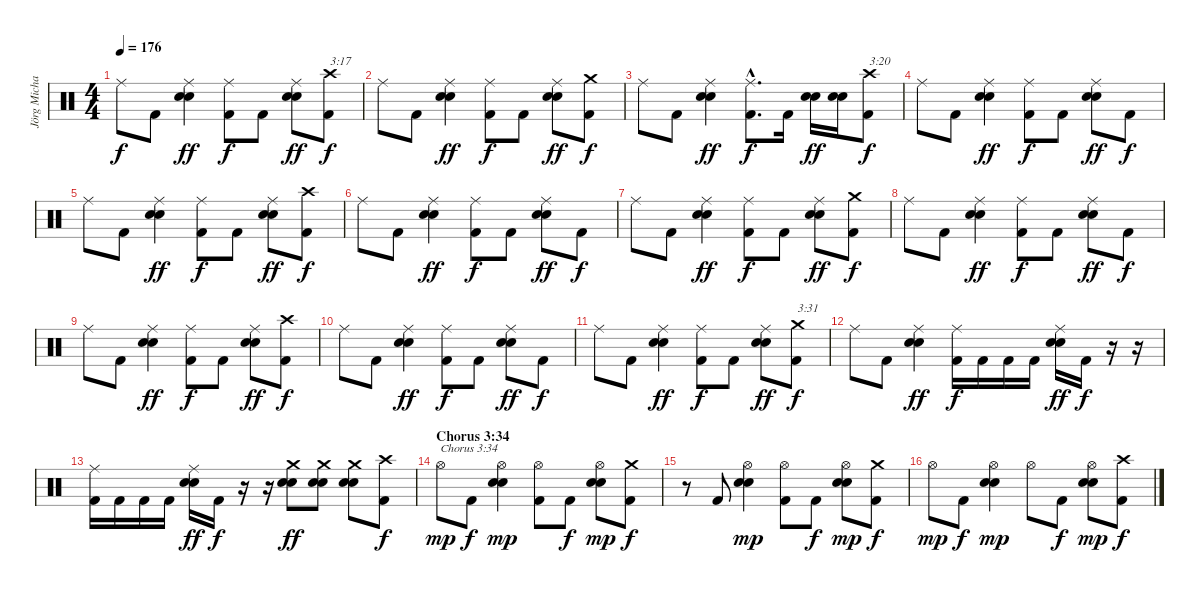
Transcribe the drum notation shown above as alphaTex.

\track ("Jörg Michael" "Jörg Micha") {instrument percussion}
\staff {score}
\articulation defaults
\ts (4 4)
\tempo 176
\clef neutral
\ks c "Ride (middle)".8{dy f} "Kick (hit) 2".8
("Snare (hit) 2" "Electric Snare (hit)" "Ride (middle)").4{dy ff} ("Kick (hit) 2" "Ride (middle)").8{dy f} "Kick (hit) 2".8 ("Snare (hit) 2" "Electric Snare (hit)" "Ride (middle)").8{dy ff} ("Kick (hit) 2" "Crash high (hit)").8{txt "3:17" dy f} |
"Ride (middle)".8 "Kick (hit) 2".8 ("Snare (hit) 2" "Electric Snare (hit)" "Ride (middle)").4{dy ff} ("Kick (hit) 2" "Ride (middle)").8{dy f} "Kick (hit) 2".8 ("Snare (hit) 2" "Electric Snare (hit)" "Ride (middle)").8{dy ff} ("Kick (hit) 2" "Crash medium (hit)").8{dy f} |
"Ride (middle)".8 "Kick (hit) 2".8 ("Snare (hit) 2" "Electric Snare (hit)" "Ride (middle)").4{dy ff} ("Kick (hit) 2"{hac} "Ride (middle)"{hac}).8{d dy f} "Kick (hit) 2".16 ("Snare (hit) 2" "Electric Snare (hit)").16{dy ff} ("Snare (hit) 2" "Electric Snare (hit)").16 ("Kick (hit) 2" "Crash high (hit)").8{txt "3:20" dy f} |
"Ride (middle)".8 "Kick (hit) 2".8 ("Snare (hit) 2" "Electric Snare (hit)" "Ride (middle)").4{dy ff} ("Kick (hit) 2" "Ride (middle)").8{dy f} "Kick (hit) 2".8 ("Snare (hit) 2" "Electric Snare (hit)" "Ride (middle)").8{dy ff} "Kick (hit) 2".8{dy f} |
"Ride (middle)".8 "Kick (hit) 2".8 ("Snare (hit) 2" "Electric Snare (hit)" "Ride (middle)").4{dy ff} ("Kick (hit) 2" "Ride (middle)").8{dy f} "Kick (hit) 2".8 ("Snare (hit) 2" "Electric Snare (hit)" "Ride (middle)").8{dy ff} ("Kick (hit) 2" "Crash high (hit)").8{dy f} |
"Ride (middle)".8 "Kick (hit) 2".8 ("Snare (hit) 2" "Electric Snare (hit)" "Ride (middle)").4{dy ff} ("Kick (hit) 2" "Ride (middle)").8{dy f} "Kick (hit) 2".8 ("Snare (hit) 2" "Electric Snare (hit)" "Ride (middle)").8{dy ff} "Kick (hit) 2".8{dy f} |
"Ride (middle)".8 "Kick (hit) 2".8 ("Snare (hit) 2" "Electric Snare (hit)" "Ride (middle)").4{dy ff} ("Kick (hit) 2" "Ride (middle)").8{dy f} "Kick (hit) 2".8 ("Snare (hit) 2" "Electric Snare (hit)" "Ride (middle)").8{dy ff} ("Kick (hit) 2" "Crash medium (hit)").8{dy f} |
"Ride (middle)".8 "Kick (hit) 2".8 ("Snare (hit) 2" "Electric Snare (hit)" "Ride (middle)").4{dy ff} ("Kick (hit) 2" "Ride (middle)").8{dy f} "Kick (hit) 2".8 ("Snare (hit) 2" "Electric Snare (hit)" "Ride (middle)").8{dy ff} "Kick (hit) 2".8{dy f} |
"Ride (middle)".8 "Kick (hit) 2".8 ("Snare (hit) 2" "Electric Snare (hit)" "Ride (middle)").4{dy ff} ("Kick (hit) 2" "Ride (middle)").8{dy f} "Kick (hit) 2".8 ("Snare (hit) 2" "Electric Snare (hit)" "Ride (middle)").8{dy ff} ("Kick (hit) 2" "Crash high (hit)").8{dy f} |
"Ride (middle)".8 "Kick (hit) 2".8 ("Snare (hit) 2" "Electric Snare (hit)" "Ride (middle)").4{dy ff} ("Kick (hit) 2" "Ride (middle)").8{dy f} "Kick (hit) 2".8 ("Snare (hit) 2" "Electric Snare (hit)" "Ride (middle)").8{dy ff} "Kick (hit) 2".8{dy f} |
"Ride (middle)".8 "Kick (hit) 2".8 ("Snare (hit) 2" "Electric Snare (hit)" "Ride (middle)").4{dy ff} ("Kick (hit) 2" "Ride (middle)").8{dy f} "Kick (hit) 2".8 ("Snare (hit) 2" "Electric Snare (hit)" "Ride (middle)").8{dy ff} ("Kick (hit) 2" "Crash medium (hit)").8{txt "3:31" dy f} |
"Ride (middle)".8 "Kick (hit) 2".8 ("Snare (hit) 2" "Electric Snare (hit)" "Ride (middle)").4{dy ff} ("Kick (hit) 2" "Ride (middle)").16{dy f} "Kick (hit) 2".16 "Kick (hit) 2".16 "Kick (hit) 2".16 ("Snare (hit) 2" "Electric Snare (hit)" "Ride (middle)").16{dy ff} "Kick (hit) 2".16{dy f} r.16 r.16 |
("Kick (hit) 2" "Ride (middle)").16 "Kick (hit) 2".16 "Kick (hit) 2".16 "Kick (hit) 2".16 ("Snare (hit) 2" "Electric Snare (hit)" "Ride (middle)").16{dy ff} "Kick (hit) 2".16{dy f} r.16 r.16 ("Snare (hit) 2" "Electric Snare (hit)" "Crash medium (hit)").8{dy ff} ("Snare (hit) 2" "Electric Snare (hit)" "Crash medium (hit)").8 ("Snare (hit) 2" "Electric Snare (hit)" "Crash medium (hit)").8 ("Kick (hit) 2" "Crash high (hit)").8{dy f} |
\section ("" "Chorus 3:34")
"Hi-Hat (open)".8{txt "Chorus 3:34" dy mp} "Kick (hit) 2".8{dy f} ("Snare (hit) 2" "Electric Snare (hit)" "Hi-Hat (open)").4{dy mp} ("Kick (hit) 2" "Hi-Hat (open)").8 "Kick (hit) 2".8{dy f} ("Snare (hit) 2" "Electric Snare (hit)" "Hi-Hat (open)").8{dy mp} ("Kick (hit) 2" "Crash medium (hit)").8{dy f} |
r.8 "Kick (hit) 2".8 ("Snare (hit) 2" "Electric Snare (hit)" "Hi-Hat (open)").4{dy mp} ("Kick (hit) 2" "Hi-Hat (open)").8 "Kick (hit) 2".8{dy f} ("Snare (hit) 2" "Electric Snare (hit)" "Hi-Hat (open)").8{dy mp} ("Kick (hit) 2" "Crash medium (hit)").8{dy f} |
"Hi-Hat (open)".8{dy mp} "Kick (hit) 2".8{dy f} ("Snare (hit) 2" "Electric Snare (hit)" "Hi-Hat (open)").4{dy mp} "Hi-Hat (open)".8 "Kick (hit) 2".8{dy f} ("Snare (hit) 2" "Electric Snare (hit)" "Hi-Hat (open)").8{dy mp} ("Kick (hit) 2" "Crash high (hit)").8{dy f}
